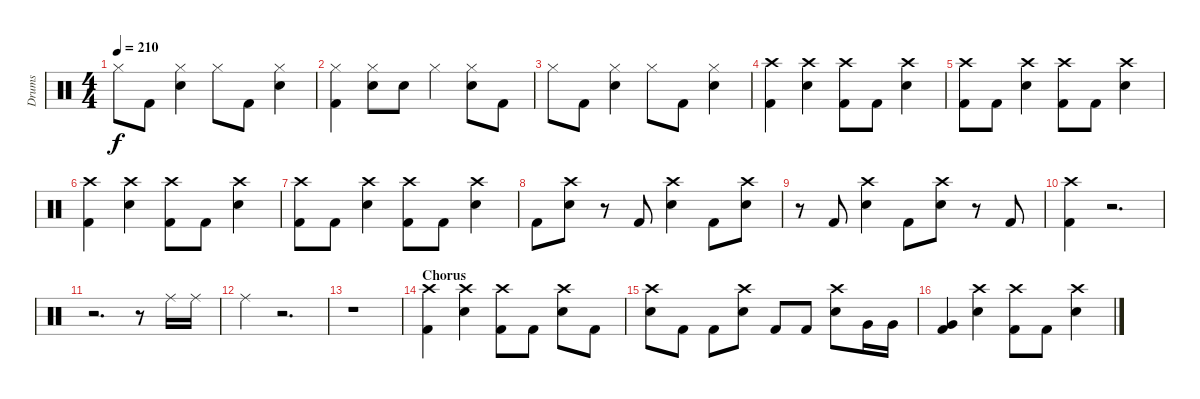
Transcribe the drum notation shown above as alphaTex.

\track ("Drums" "Drums") {instrument percussion}
\staff {score}
\articulation defaults
\ts (4 4)
\tempo 210
\clef neutral
\ks c "Hi-Hat (closed)".8{dy f} "Kick (hit) 2".8
("Hi-Hat (closed)" "Snare (hit) 2").4 "Hi-Hat (closed)".8 "Kick (hit) 2".8 ("Hi-Hat (closed)" "Snare (hit) 2").4 |
("Hi-Hat (closed)" "Kick (hit) 2").4 ("Hi-Hat (closed)" "Snare (hit) 2").8 "Snare (hit) 2".8 "Hi-Hat (closed)".4 ("Hi-Hat (closed)" "Snare (hit) 2").8 "Kick (hit) 2".8 |
"Hi-Hat (closed)".8 "Kick (hit) 2".8 ("Hi-Hat (closed)" "Snare (hit) 2").4 "Hi-Hat (closed)".8 "Kick (hit) 2".8 ("Hi-Hat (closed)" "Snare (hit) 2").4 |
("Crash high (hit)" "Kick (hit) 2").4 ("Crash high (hit)" "Snare (hit) 2").4 ("Crash high (hit)" "Kick (hit) 2").8 "Kick (hit) 2".8 ("Crash high (hit)" "Snare (hit) 2").4 |
("Crash high (hit)" "Kick (hit) 2").8 "Kick (hit) 2".8 ("Crash high (hit)" "Snare (hit) 2").4 ("Crash high (hit)" "Kick (hit) 2").8 "Kick (hit) 2".8 ("Crash high (hit)" "Snare (hit) 2").4 |
("Crash high (hit)" "Kick (hit) 2").4 ("Crash high (hit)" "Snare (hit) 2").4 ("Crash high (hit)" "Kick (hit) 2").8 "Kick (hit) 2".8 ("Crash high (hit)" "Snare (hit) 2").4 |
("Crash high (hit)" "Kick (hit) 2").8 "Kick (hit) 2".8 ("Crash high (hit)" "Snare (hit) 2").4 ("Crash high (hit)" "Kick (hit) 2").8 "Kick (hit) 2".8 ("Crash high (hit)" "Snare (hit) 2").4 |
"Kick (hit) 2".8 ("Crash high (hit)" "Snare (hit) 2").8 r.8 "Kick (hit) 2".8 ("Crash high (hit)" "Snare (hit) 2").4 "Kick (hit) 2".8 ("Crash high (hit)" "Snare (hit) 2").8 |
r.8 "Kick (hit) 2".8 ("Crash high (hit)" "Snare (hit) 2").4 "Kick (hit) 2".8 ("Crash high (hit)" "Snare (hit) 2").8 r.8 "Kick (hit) 2".8 |
("Crash high (hit)" "Kick (hit) 2").4 r.2{d} |
r.2{d} r.8 "Ride (middle)".16 "Ride (middle)".16 |
"Ride (middle)".4 r.2{d} |
r.1 |
\section ("" "Chorus")
("Crash high (hit)" "Kick (hit) 2").4 ("Crash high (hit)" "Snare (hit) 2").4 ("Crash high (hit)" "Kick (hit) 2").8 "Kick (hit) 2".8 ("Crash high (hit)" "Snare (hit) 2").8 "Kick (hit) 2".8 |
("Crash high (hit)" "Snare (hit) 2").8 "Kick (hit) 2".8 "Kick (hit) 2".8 ("Crash high (hit)" "Snare (hit) 2").8 "Kick (hit) 2".8 "Kick (hit) 2".8 ("Crash high (hit)" "Snare (hit) 2").8 "Very Low Tom (hit)".16 "Very Low Tom (hit)".16 |
("Very Low Tom (hit)" "Kick (hit) 2").4 ("Crash high (hit)" "Snare (hit) 2").4 ("Crash high (hit)" "Kick (hit) 2").8 "Kick (hit) 2".8 ("Crash high (hit)" "Snare (hit) 2").4
